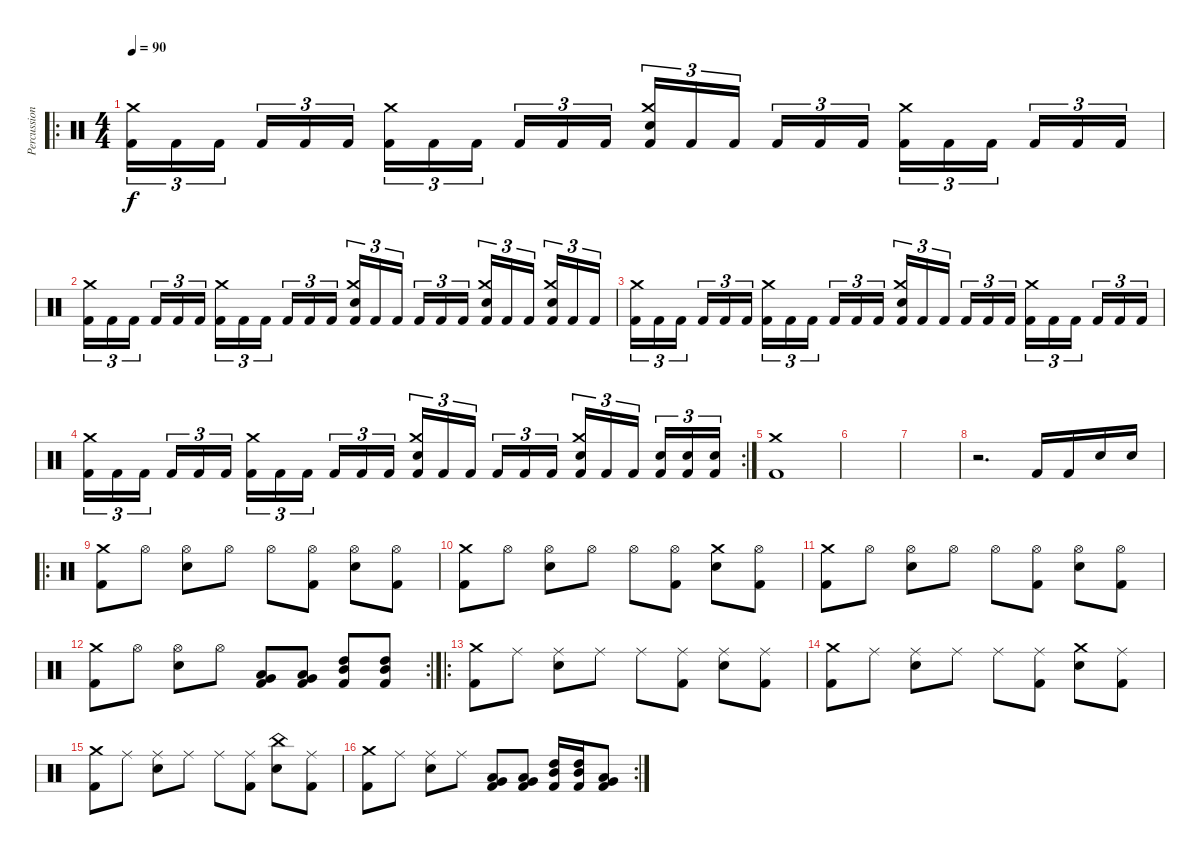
\track ("Percussion" "Percussion") {instrument percussion}
\staff {score}
\articulation defaults
\ro
\ts (4 4)
\tempo 90
\clef neutral
\ks c
("Kick (hit) 2" "Crash medium (hit)").16{tu (3 2) dy f} "Kick (hit) 2".16{tu (3 2)} "Kick (hit) 2".16{tu (3 2)} "Kick (hit) 2".16{tu (3 2)} "Kick (hit) 2".16{tu (3 2)} "Kick (hit) 2".16{tu (3 2)} ("Kick (hit) 2" "Crash medium (hit)").16{tu (3 2)} "Kick (hit) 2".16{tu (3 2)} "Kick (hit) 2".16{tu (3 2)} "Kick (hit) 2".16{tu (3 2)} "Kick (hit) 2".16{tu (3 2)} "Kick (hit) 2".16{tu (3 2)} ("Kick (hit) 2" "Electric Snare (hit)" "Crash medium (hit)").16{tu (3 2)} "Kick (hit) 2".16{tu (3 2)} "Kick (hit) 2".16{tu (3 2)} "Kick (hit) 2".16{tu (3 2)} "Kick (hit) 2".16{tu (3 2)} "Kick (hit) 2".16{tu (3 2)} ("Kick (hit) 2" "Crash medium (hit)").16{tu (3 2)} "Kick (hit) 2".16{tu (3 2)} "Kick (hit) 2".16{tu (3 2)} "Kick (hit) 2".16{tu (3 2)} "Kick (hit) 2".16{tu (3 2)} "Kick (hit) 2".16{tu (3 2)} |
("Kick (hit) 2" "Crash medium (hit)").16{tu (3 2)} "Kick (hit) 2".16{tu (3 2)} "Kick (hit) 2".16{tu (3 2)} "Kick (hit) 2".16{tu (3 2)} "Kick (hit) 2".16{tu (3 2)} "Kick (hit) 2".16{tu (3 2)} ("Kick (hit) 2" "Crash medium (hit)").16{tu (3 2)} "Kick (hit) 2".16{tu (3 2)} "Kick (hit) 2".16{tu (3 2)} "Kick (hit) 2".16{tu (3 2)} "Kick (hit) 2".16{tu (3 2)} "Kick (hit) 2".16{tu (3 2)} ("Kick (hit) 2" "Electric Snare (hit)" "Crash medium (hit)").16{tu (3 2)} "Kick (hit) 2".16{tu (3 2)} "Kick (hit) 2".16{tu (3 2)} "Kick (hit) 2".16{tu (3 2)} "Kick (hit) 2".16{tu (3 2)} "Kick (hit) 2".16{tu (3 2)} ("Kick (hit) 2" "Electric Snare (hit)" "Crash medium (hit)").16{tu (3 2)} "Kick (hit) 2".16{tu (3 2)} "Kick (hit) 2".16{tu (3 2)} ("Kick (hit) 2" "Electric Snare (hit)" "Crash medium (hit)").16{tu (3 2)} "Kick (hit) 2".16{tu (3 2)} "Kick (hit) 2".16{tu (3 2)} |
("Kick (hit) 2" "Crash medium (hit)").16{tu (3 2)} "Kick (hit) 2".16{tu (3 2)} "Kick (hit) 2".16{tu (3 2)} "Kick (hit) 2".16{tu (3 2)} "Kick (hit) 2".16{tu (3 2)} "Kick (hit) 2".16{tu (3 2)} ("Kick (hit) 2" "Crash medium (hit)").16{tu (3 2)} "Kick (hit) 2".16{tu (3 2)} "Kick (hit) 2".16{tu (3 2)} "Kick (hit) 2".16{tu (3 2)} "Kick (hit) 2".16{tu (3 2)} "Kick (hit) 2".16{tu (3 2)} ("Kick (hit) 2" "Electric Snare (hit)" "Crash medium (hit)").16{tu (3 2)} "Kick (hit) 2".16{tu (3 2)} "Kick (hit) 2".16{tu (3 2)} "Kick (hit) 2".16{tu (3 2)} "Kick (hit) 2".16{tu (3 2)} "Kick (hit) 2".16{tu (3 2)} ("Kick (hit) 2" "Crash medium (hit)").16{tu (3 2)} "Kick (hit) 2".16{tu (3 2)} "Kick (hit) 2".16{tu (3 2)} "Kick (hit) 2".16{tu (3 2)} "Kick (hit) 2".16{tu (3 2)} "Kick (hit) 2".16{tu (3 2)} |
\rc 2
("Kick (hit) 2" "Crash medium (hit)").16{tu (3 2)} "Kick (hit) 2".16{tu (3 2)} "Kick (hit) 2".16{tu (3 2)} "Kick (hit) 2".16{tu (3 2)} "Kick (hit) 2".16{tu (3 2)} "Kick (hit) 2".16{tu (3 2)} ("Kick (hit) 2" "Crash medium (hit)").16{tu (3 2)} "Kick (hit) 2".16{tu (3 2)} "Kick (hit) 2".16{tu (3 2)} "Kick (hit) 2".16{tu (3 2)} "Kick (hit) 2".16{tu (3 2)} "Kick (hit) 2".16{tu (3 2)} ("Kick (hit) 2" "Electric Snare (hit)" "Crash medium (hit)").16{tu (3 2)} "Kick (hit) 2".16{tu (3 2)} "Kick (hit) 2".16{tu (3 2)} "Kick (hit) 2".16{tu (3 2)} "Kick (hit) 2".16{tu (3 2)} "Kick (hit) 2".16{tu (3 2)} ("Kick (hit) 2" "Electric Snare (hit)" "Crash medium (hit)").16{tu (3 2)} "Kick (hit) 2".16{tu (3 2)} "Kick (hit) 2".16{tu (3 2)} ("Kick (hit) 2" "Electric Snare (hit)").16{tu (3 2)} ("Kick (hit) 2" "Electric Snare (hit)").16{tu (3 2)} ("Kick (hit) 2" "Electric Snare (hit)").16{tu (3 2)} |
("Kick (hit) 2" "Crash medium (hit)").1 |
|
|
r.2{d} "Kick (hit) 2".16 "Kick (hit) 2".16 "Electric Snare (hit)".16 "Electric Snare (hit)".16 |
\ro
("Kick (hit) 2" "Crash medium (hit)").8 "Hi-Hat (open)".8 ("Electric Snare (hit)" "Hi-Hat (open)").8 "Hi-Hat (open)".8 "Hi-Hat (open)".8 ("Kick (hit) 2" "Hi-Hat (open)").8 ("Electric Snare (hit)" "Hi-Hat (open)").8 ("Kick (hit) 2" "Hi-Hat (open)").8 |
("Kick (hit) 2" "Crash medium (hit)").8 "Hi-Hat (open)".8 ("Electric Snare (hit)" "Hi-Hat (open)").8 "Hi-Hat (open)".8 "Hi-Hat (open)".8 ("Kick (hit) 2" "Hi-Hat (open)").8 ("Electric Snare (hit)" "Crash medium (hit)").8 ("Kick (hit) 2" "Hi-Hat (open)").8 |
("Kick (hit) 2" "Crash medium (hit)").8 "Hi-Hat (open)".8 ("Electric Snare (hit)" "Hi-Hat (open)").8 "Hi-Hat (open)".8 "Hi-Hat (open)".8 ("Kick (hit) 2" "Hi-Hat (open)").8 ("Electric Snare (hit)" "Hi-Hat (open)").8 ("Kick (hit) 2" "Hi-Hat (open)").8 |
\rc 2
("Kick (hit) 2" "Crash medium (hit)").8 "Hi-Hat (open)".8 ("Electric Snare (hit)" "Hi-Hat (open)").8 "Hi-Hat (open)".8 ("Kick (hit) 2" "Low Tom (hit)" "Very Low Tom (hit)").8 ("Kick (hit) 2" "Low Tom (hit)" "Very Low Tom (hit)").8 ("Kick (hit) 2" "High Tom (hit)" "Mid Tom (hit)").8 ("Kick (hit) 2" "High Tom (hit)" "Mid Tom (hit)").8 |
\ro
("Kick (hit) 2" "Crash medium (hit)").8 "Ride (middle)".8 ("Electric Snare (hit)" "Ride (middle)").8 "Ride (middle)".8 "Ride (middle)".8 ("Kick (hit) 2" "Ride (middle)").8 ("Electric Snare (hit)" "Ride (middle)").8 ("Kick (hit) 2" "Ride (middle)").8 |
("Kick (hit) 2" "Crash medium (hit)").8 "Ride (middle)".8 ("Electric Snare (hit)" "Ride (middle)").8 "Ride (middle)".8 "Ride (middle)".8 ("Kick (hit) 2" "Ride (middle)").8 ("Electric Snare (hit)" "Crash medium (hit)").8 ("Kick (hit) 2" "Ride (middle)").8 |
("Kick (hit) 2" "Crash medium (hit)").8 "Ride (middle)".8 ("Electric Snare (hit)" "Ride (middle)").8 "Ride (middle)".8 "Ride (middle)".8 ("Kick (hit) 2" "Ride (middle)").8 ("Electric Snare (hit)" "China (hit)").8 ("Kick (hit) 2" "Ride (middle)").8 |
\rc 2
("Kick (hit) 2" "Crash medium (hit)").8 "Ride (middle)".8 ("Electric Snare (hit)" "Ride (middle)").8 "Ride (middle)".8 ("Kick (hit) 2" "Low Tom (hit)" "Very Low Tom (hit)").8 ("Kick (hit) 2" "Low Tom (hit)" "Very Low Tom (hit)").8 ("Kick (hit) 2" "High Tom (hit)" "Mid Tom (hit)").16 ("Kick (hit) 2" "High Tom (hit)" "Mid Tom (hit)").16 ("Kick (hit) 2" "Low Tom (hit)" "Very Low Tom (hit)").8
